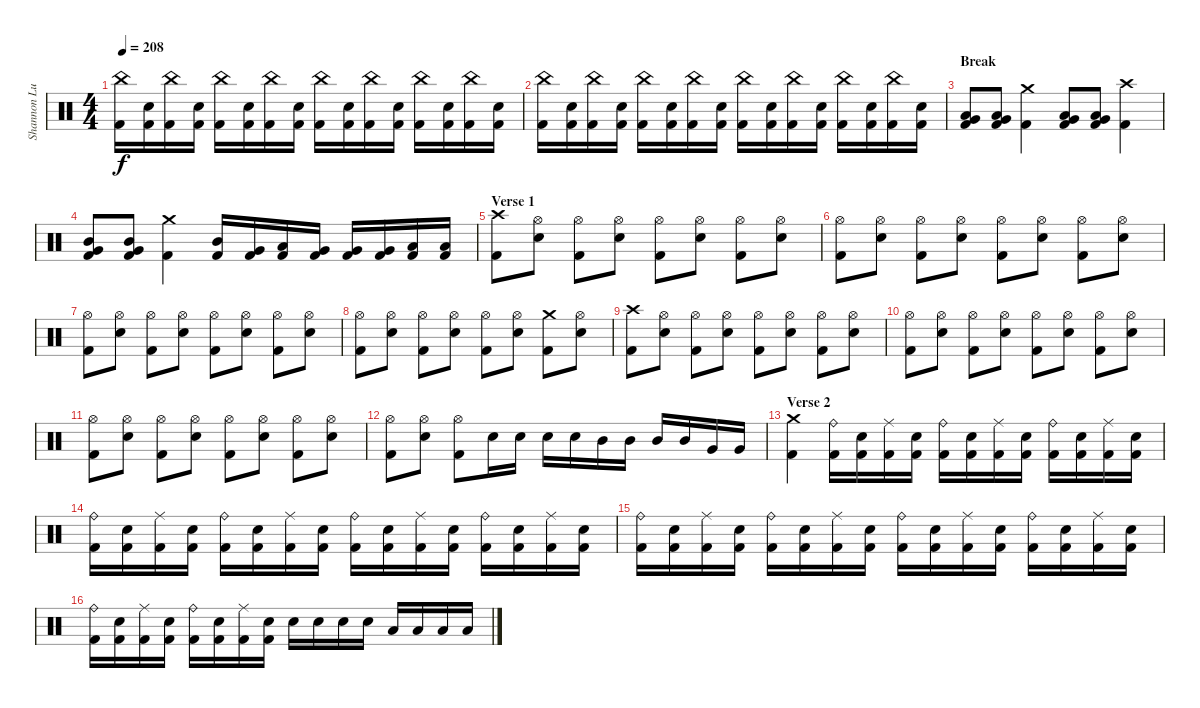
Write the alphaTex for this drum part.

\track ("Shannon Lucas [Drums (Since 2007)]" "Shannon Lu") {instrument percussion}
\staff {score}
\articulation defaults
\ts (4 4)
\tempo 208
\clef neutral
\ks c
("China (hit)" "Kick (hit) 2").16{dy f} ("Snare (hit) 2" "Kick (hit) 2").16 ("China (hit)" "Kick (hit) 2").16 ("Snare (hit) 2" "Kick (hit) 2").16 ("China (hit)" "Kick (hit) 2").16 ("Snare (hit) 2" "Kick (hit) 2").16 ("China (hit)" "Kick (hit) 2").16 ("Snare (hit) 2" "Kick (hit) 2").16 ("China (hit)" "Kick (hit) 2").16 ("Snare (hit) 2" "Kick (hit) 2").16 ("China (hit)" "Kick (hit) 2").16 ("Snare (hit) 2" "Kick (hit) 2").16 ("China (hit)" "Kick (hit) 2").16 ("Snare (hit) 2" "Kick (hit) 2").16 ("China (hit)" "Kick (hit) 2").16 ("Snare (hit) 2" "Kick (hit) 2").16 |
("China (hit)" "Kick (hit) 2").16 ("Snare (hit) 2" "Kick (hit) 2").16 ("China (hit)" "Kick (hit) 2").16 ("Snare (hit) 2" "Kick (hit) 2").16 ("China (hit)" "Kick (hit) 2").16 ("Snare (hit) 2" "Kick (hit) 2").16 ("China (hit)" "Kick (hit) 2").16 ("Snare (hit) 2" "Kick (hit) 2").16 ("China (hit)" "Kick (hit) 2").16 ("Snare (hit) 2" "Kick (hit) 2").16 ("China (hit)" "Kick (hit) 2").16 ("Snare (hit) 2" "Kick (hit) 2").16 ("China (hit)" "Kick (hit) 2").16 ("Snare (hit) 2" "Kick (hit) 2").16 ("China (hit)" "Kick (hit) 2").16 ("Snare (hit) 2" "Kick (hit) 2").16 |
\section ("" "Break")
("Very Low Tom (hit)" "Low Floor Tom (hit)" "Kick (hit) 2").8 ("Very Low Tom (hit)" "Low Floor Tom (hit)" "Kick (hit) 2").8 ("Crash medium (hit)" "Kick (hit) 2").4 ("Low Tom (hit)" "Very Low Tom (hit)" "Kick (hit) 2").8 ("Low Tom (hit)" "Very Low Tom (hit)" "Kick (hit) 2").8 ("Crash high (hit)" "Kick (hit) 2").4 |
("Mid Tom (hit)" "Very Low Tom (hit)" "Kick (hit) 2").8 ("Mid Tom (hit)" "Very Low Tom (hit)" "Kick (hit) 2").8 ("Crash medium (hit)" "Kick (hit) 2").4 ("Mid Tom (hit)" "Kick (hit) 2").16 ("Very Low Tom (hit)" "Kick (hit) 2").16 ("Low Floor Tom (hit)" "Kick (hit) 2").16 ("Very Low Tom (hit)" "Kick (hit) 2").16 ("Very Low Tom (hit)" "Kick (hit) 2").16 ("Very Low Tom (hit)" "Kick (hit) 2").16 ("Low Floor Tom (hit)" "Kick (hit) 2").16 ("Low Floor Tom (hit)" "Kick (hit) 2").16 |
\section ("" "Verse 1")
("Crash high (hit)" "Kick (hit) 2").8 ("Hi-Hat (open)" "Snare (hit) 2").8 ("Hi-Hat (open)" "Kick (hit) 2").8 ("Hi-Hat (open)" "Snare (hit) 2").8 ("Hi-Hat (open)" "Kick (hit) 2").8 ("Hi-Hat (open)" "Snare (hit) 2").8 ("Hi-Hat (open)" "Kick (hit) 2").8 ("Hi-Hat (open)" "Snare (hit) 2").8 |
("Hi-Hat (open)" "Kick (hit) 2").8 ("Hi-Hat (open)" "Snare (hit) 2").8 ("Hi-Hat (open)" "Kick (hit) 2").8 ("Hi-Hat (open)" "Snare (hit) 2").8 ("Hi-Hat (open)" "Kick (hit) 2").8 ("Hi-Hat (open)" "Snare (hit) 2").8 ("Hi-Hat (open)" "Kick (hit) 2").8 ("Hi-Hat (open)" "Snare (hit) 2").8 |
("Hi-Hat (open)" "Kick (hit) 2").8 ("Hi-Hat (open)" "Snare (hit) 2").8 ("Hi-Hat (open)" "Kick (hit) 2").8 ("Hi-Hat (open)" "Snare (hit) 2").8 ("Hi-Hat (open)" "Kick (hit) 2").8 ("Hi-Hat (open)" "Snare (hit) 2").8 ("Hi-Hat (open)" "Kick (hit) 2").8 ("Hi-Hat (open)" "Snare (hit) 2").8 |
("Hi-Hat (open)" "Kick (hit) 2").8 ("Hi-Hat (open)" "Snare (hit) 2").8 ("Hi-Hat (open)" "Kick (hit) 2").8 ("Hi-Hat (open)" "Snare (hit) 2").8 ("Hi-Hat (open)" "Kick (hit) 2").8 ("Hi-Hat (open)" "Snare (hit) 2").8 ("Crash medium (hit)" "Kick (hit) 2").8 ("Hi-Hat (open)" "Snare (hit) 2").8 |
("Crash high (hit)" "Kick (hit) 2").8 ("Hi-Hat (open)" "Snare (hit) 2").8 ("Hi-Hat (open)" "Kick (hit) 2").8 ("Hi-Hat (open)" "Snare (hit) 2").8 ("Hi-Hat (open)" "Kick (hit) 2").8 ("Hi-Hat (open)" "Snare (hit) 2").8 ("Hi-Hat (open)" "Kick (hit) 2").8 ("Hi-Hat (open)" "Snare (hit) 2").8 |
("Hi-Hat (open)" "Kick (hit) 2").8 ("Hi-Hat (open)" "Snare (hit) 2").8 ("Hi-Hat (open)" "Kick (hit) 2").8 ("Hi-Hat (open)" "Snare (hit) 2").8 ("Hi-Hat (open)" "Kick (hit) 2").8 ("Hi-Hat (open)" "Snare (hit) 2").8 ("Hi-Hat (open)" "Kick (hit) 2").8 ("Hi-Hat (open)" "Snare (hit) 2").8 |
("Hi-Hat (open)" "Kick (hit) 2").8 ("Hi-Hat (open)" "Snare (hit) 2").8 ("Hi-Hat (open)" "Kick (hit) 2").8 ("Hi-Hat (open)" "Snare (hit) 2").8 ("Hi-Hat (open)" "Kick (hit) 2").8 ("Hi-Hat (open)" "Snare (hit) 2").8 ("Hi-Hat (open)" "Kick (hit) 2").8 ("Hi-Hat (open)" "Snare (hit) 2").8 |
("Hi-Hat (open)" "Kick (hit) 2").8 ("Hi-Hat (open)" "Snare (hit) 2").8 ("Hi-Hat (open)" "Kick (hit) 2").8 "Snare (hit) 2".16 "Snare (hit) 2".16 "Snare (hit) 2".16 "Snare (hit) 2".16 "Mid Tom (hit)".16 "Mid Tom (hit)".16 "Mid Tom (hit)".16 "Mid Tom (hit)".16 "Very Low Tom (hit)".16 "Very Low Tom (hit)".16 |
\section ("" "Verse 2")
("Crash medium (hit)" "Kick (hit) 2").4 ("Ride (bell)" "Kick (hit) 2").16 ("Snare (hit) 2" "Kick (hit) 2").16 ("Ride (middle)" "Kick (hit) 2").16 ("Snare (hit) 2" "Kick (hit) 2").16 ("Ride (bell)" "Kick (hit) 2").16 ("Snare (hit) 2" "Kick (hit) 2").16 ("Ride (middle)" "Kick (hit) 2").16 ("Snare (hit) 2" "Kick (hit) 2").16 ("Ride (bell)" "Kick (hit) 2").16 ("Snare (hit) 2" "Kick (hit) 2").16 ("Ride (middle)" "Kick (hit) 2").16 ("Snare (hit) 2" "Kick (hit) 2").16 |
("Ride (bell)" "Kick (hit) 2").16 ("Snare (hit) 2" "Kick (hit) 2").16 ("Ride (middle)" "Kick (hit) 2").16 ("Snare (hit) 2" "Kick (hit) 2").16 ("Ride (bell)" "Kick (hit) 2").16 ("Snare (hit) 2" "Kick (hit) 2").16 ("Ride (middle)" "Kick (hit) 2").16 ("Snare (hit) 2" "Kick (hit) 2").16 ("Ride (bell)" "Kick (hit) 2").16 ("Snare (hit) 2" "Kick (hit) 2").16 ("Ride (middle)" "Kick (hit) 2").16 ("Snare (hit) 2" "Kick (hit) 2").16 ("Ride (bell)" "Kick (hit) 2").16 ("Snare (hit) 2" "Kick (hit) 2").16 ("Ride (middle)" "Kick (hit) 2").16 ("Snare (hit) 2" "Kick (hit) 2").16 |
("Ride (bell)" "Kick (hit) 2").16 ("Snare (hit) 2" "Kick (hit) 2").16 ("Ride (middle)" "Kick (hit) 2").16 ("Snare (hit) 2" "Kick (hit) 2").16 ("Ride (bell)" "Kick (hit) 2").16 ("Snare (hit) 2" "Kick (hit) 2").16 ("Ride (middle)" "Kick (hit) 2").16 ("Snare (hit) 2" "Kick (hit) 2").16 ("Ride (bell)" "Kick (hit) 2").16 ("Snare (hit) 2" "Kick (hit) 2").16 ("Ride (middle)" "Kick (hit) 2").16 ("Snare (hit) 2" "Kick (hit) 2").16 ("Ride (bell)" "Kick (hit) 2").16 ("Snare (hit) 2" "Kick (hit) 2").16 ("Ride (middle)" "Kick (hit) 2").16 ("Snare (hit) 2" "Kick (hit) 2").16 |
("Ride (bell)" "Kick (hit) 2").16 ("Snare (hit) 2" "Kick (hit) 2").16 ("Ride (middle)" "Kick (hit) 2").16 ("Snare (hit) 2" "Kick (hit) 2").16 ("Ride (bell)" "Kick (hit) 2").16 ("Snare (hit) 2" "Kick (hit) 2").16 ("Ride (middle)" "Kick (hit) 2").16 ("Snare (hit) 2" "Kick (hit) 2").16 "Snare (hit) 2".16 "Snare (hit) 2".16 "Snare (hit) 2".16 "Snare (hit) 2".16 "Low Tom (hit)".16 "Low Tom (hit)".16 "Low Tom (hit)".16 "Low Tom (hit)".16
